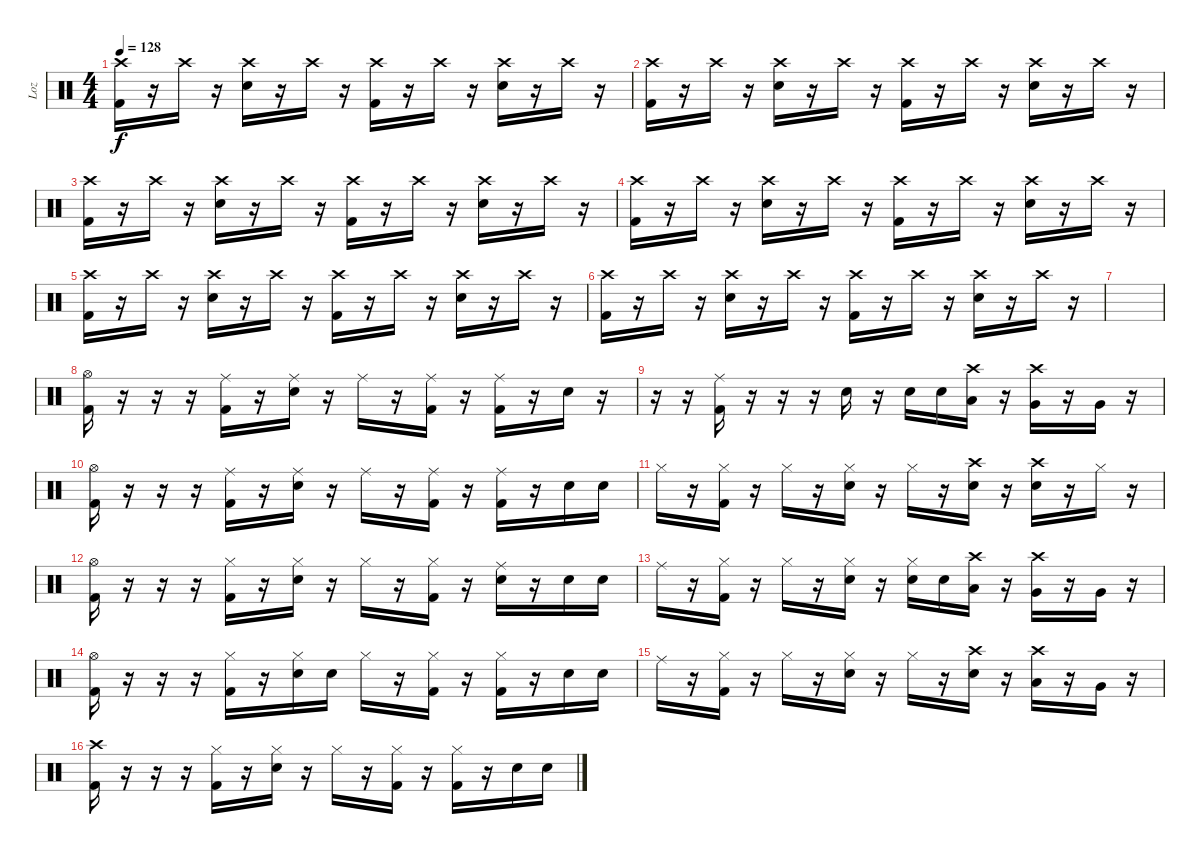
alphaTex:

\track ("Loz" "Loz") {instrument percussion}
\staff {score}
\articulation defaults
\ts (4 4)
\tempo 128
\clef neutral
\ks c
("Crash high (hit)" "Kick (hit) 2").16{dy f} r.16 "Crash high (hit)".16 r.16 ("Crash high (hit)" "Snare (hit) 2").16 r.16 "Crash high (hit)".16 r.16 ("Crash high (hit)" "Kick (hit) 2").16 r.16 "Crash high (hit)".16 r.16 ("Crash high (hit)" "Snare (hit) 2").16 r.16 "Crash high (hit)".16 r.16 |
("Crash high (hit)" "Kick (hit) 2").16 r.16 "Crash high (hit)".16 r.16 ("Crash high (hit)" "Snare (hit) 2").16 r.16 "Crash high (hit)".16 r.16 ("Crash high (hit)" "Kick (hit) 2").16 r.16 "Crash high (hit)".16 r.16 ("Crash high (hit)" "Snare (hit) 2").16 r.16 "Crash high (hit)".16 r.16 |
("Crash high (hit)" "Kick (hit) 2").16 r.16 "Crash high (hit)".16 r.16 ("Crash high (hit)" "Snare (hit) 2").16 r.16 "Crash high (hit)".16 r.16 ("Crash high (hit)" "Kick (hit) 2").16 r.16 "Crash high (hit)".16 r.16 ("Crash high (hit)" "Snare (hit) 2").16 r.16 "Crash high (hit)".16 r.16 |
("Crash high (hit)" "Kick (hit) 2").16 r.16 "Crash high (hit)".16 r.16 ("Crash high (hit)" "Snare (hit) 2").16 r.16 "Crash high (hit)".16 r.16 ("Crash high (hit)" "Kick (hit) 2").16 r.16 "Crash high (hit)".16 r.16 ("Crash high (hit)" "Snare (hit) 2").16 r.16 "Crash high (hit)".16 r.16 |
("Crash high (hit)" "Kick (hit) 2").16 r.16 "Crash high (hit)".16 r.16 ("Crash high (hit)" "Snare (hit) 2").16 r.16 "Crash high (hit)".16 r.16 ("Crash high (hit)" "Kick (hit) 2").16 r.16 "Crash high (hit)".16 r.16 ("Crash high (hit)" "Snare (hit) 2").16 r.16 "Crash high (hit)".16 r.16 |
("Crash high (hit)" "Kick (hit) 2").16 r.16 "Crash high (hit)".16 r.16 ("Crash high (hit)" "Snare (hit) 2").16 r.16 "Crash high (hit)".16 r.16 ("Crash high (hit)" "Kick (hit) 2").16 r.16 "Crash high (hit)".16 r.16 ("Crash high (hit)" "Snare (hit) 2").16 r.16 "Crash high (hit)".16 r.16 |
|
("Hi-Hat (open)" "Kick (hit) 2").16{volume 13} r.16 r.16 r.16 ("Ride (middle)" "Kick (hit) 2").16 r.16 ("Ride (middle)" "Snare (hit) 2").16 r.16 "Ride (middle)".16 r.16 ("Ride (middle)" "Kick (hit) 2").16 r.16 ("Ride (middle)" "Kick (hit) 2").16 r.16 "Snare (hit) 2".16 r.16 |
r.16 r.16 ("Ride (middle)" "Kick (hit) 2").16 r.16 r.16 r.16 "Snare (hit) 2".16 r.16 "Snare (hit) 2".16 "Snare (hit) 2".16 ("Crash high (hit)" "Low Tom (hit)").16 r.16 ("Crash high (hit)" "Very Low Tom (hit)").16 r.16 "Very Low Tom (hit)".16 r.16 |
("Hi-Hat (open)" "Kick (hit) 2").16 r.16 r.16 r.16 ("Ride (middle)" "Kick (hit) 2").16 r.16 ("Ride (middle)" "Snare (hit) 2").16 r.16 "Ride (middle)".16 r.16 ("Ride (middle)" "Kick (hit) 2").16 r.16 ("Ride (middle)" "Kick (hit) 2").16 r.16 "Snare (hit) 2".16 "Snare (hit) 2".16 |
"Hi-Hat (closed)".16 r.16 ("Hi-Hat (closed)" "Kick (hit) 2").16 r.16 "Hi-Hat (closed)".16 r.16 ("Hi-Hat (closed)" "Snare (hit) 2").16 r.16 "Hi-Hat (closed)".16 r.16 ("Crash high (hit)" "Snare (hit) 2").16 r.16 ("Crash high (hit)" "Snare (hit) 2").16 r.16 "Hi-Hat (closed)".16 r.16 |
("Hi-Hat (open)" "Kick (hit) 2").16 r.16 r.16 r.16 ("Hi-Hat (closed)" "Kick (hit) 2").16 r.16 ("Hi-Hat (closed)" "Snare (hit) 2").16 r.16 "Hi-Hat (closed)".16 r.16 ("Hi-Hat (closed)" "Kick (hit) 2").16 r.16 ("Ride (middle)" "Snare (hit) 2").16 r.16 "Snare (hit) 2".16 "Snare (hit) 2".16 |
"Ride (middle)".16 r.16 ("Hi-Hat (closed)" "Kick (hit) 2").16 r.16 "Hi-Hat (closed)".16 r.16 ("Hi-Hat (closed)" "Snare (hit) 2").16 r.16 ("Hi-Hat (closed)" "Snare (hit) 2").16 "Snare (hit) 2".16 ("Crash high (hit)" "Low Tom (hit)").16 r.16 ("Crash high (hit)" "Very Low Tom (hit)").16 r.16 "Very Low Tom (hit)".16 r.16 |
("Hi-Hat (open)" "Kick (hit) 2").16 r.16 r.16 r.16 ("Hi-Hat (closed)" "Kick (hit) 2").16 r.16 ("Hi-Hat (closed)" "Snare (hit) 2").16 "Snare (hit) 2".16 "Hi-Hat (closed)".16 r.16 ("Hi-Hat (closed)" "Kick (hit) 2").16 r.16 ("Hi-Hat (closed)" "Kick (hit) 2").16 r.16 "Snare (hit) 2".16 "Snare (hit) 2".16 |
"Ride (middle)".16 r.16 ("Hi-Hat (closed)" "Kick (hit) 2").16 r.16 "Hi-Hat (closed)".16 r.16 ("Hi-Hat (closed)" "Snare (hit) 2").16 r.16 "Hi-Hat (closed)".16 r.16 ("Crash high (hit)" "Snare (hit) 2").16 r.16 ("Crash high (hit)" "Low Tom (hit)").16 r.16 "Very Low Tom (hit)".16 r.16 |
("Crash high (hit)" "Kick (hit) 2").16 r.16 r.16 r.16 ("Hi-Hat (closed)" "Kick (hit) 2").16 r.16 ("Hi-Hat (closed)" "Snare (hit) 2").16 r.16 "Hi-Hat (closed)".16 r.16 ("Hi-Hat (closed)" "Kick (hit) 2").16 r.16 ("Hi-Hat (closed)" "Kick (hit) 2").16 r.16 "Snare (hit) 2".16 "Snare (hit) 2".16
